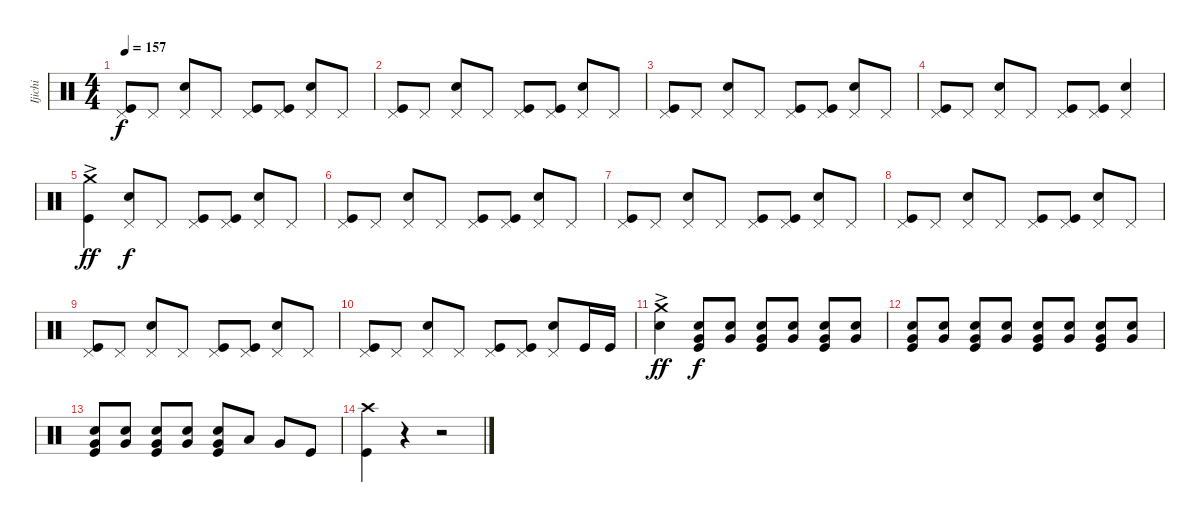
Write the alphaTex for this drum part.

\track ("Ijichi" "Ijichi") {instrument percussion}
\staff {score}
\articulation defaults
\ts (4 4)
\tempo 157
\clef neutral
\ks c
("Pedal Hi-Hat (hit)" "Kick (hit)").8{dy f} "Pedal Hi-Hat (hit)".8 ("Pedal Hi-Hat (hit)" "Snare (hit) 2").8 "Pedal Hi-Hat (hit)".8 ("Pedal Hi-Hat (hit)" "Kick (hit)").8 ("Pedal Hi-Hat (hit)" "Kick (hit)").8 ("Pedal Hi-Hat (hit)" "Snare (hit) 2").8 "Pedal Hi-Hat (hit)".8 |
("Pedal Hi-Hat (hit)" "Kick (hit)").8 "Pedal Hi-Hat (hit)".8 ("Pedal Hi-Hat (hit)" "Snare (hit) 2").8 "Pedal Hi-Hat (hit)".8 ("Pedal Hi-Hat (hit)" "Kick (hit)").8 ("Pedal Hi-Hat (hit)" "Kick (hit)").8 ("Pedal Hi-Hat (hit)" "Snare (hit) 2").8 "Pedal Hi-Hat (hit)".8 |
("Pedal Hi-Hat (hit)" "Kick (hit)").8 "Pedal Hi-Hat (hit)".8 ("Pedal Hi-Hat (hit)" "Snare (hit) 2").8 "Pedal Hi-Hat (hit)".8 ("Pedal Hi-Hat (hit)" "Kick (hit)").8 ("Pedal Hi-Hat (hit)" "Kick (hit)").8 ("Pedal Hi-Hat (hit)" "Snare (hit) 2").8 "Pedal Hi-Hat (hit)".8 |
("Pedal Hi-Hat (hit)" "Kick (hit)").8 "Pedal Hi-Hat (hit)".8 ("Pedal Hi-Hat (hit)" "Snare (hit) 2").8 "Pedal Hi-Hat (hit)".8 ("Pedal Hi-Hat (hit)" "Kick (hit)").8 ("Pedal Hi-Hat (hit)" "Kick (hit)").8 ("Pedal Hi-Hat (hit)" "Snare (hit) 2").4 |
("Crash medium (hit)"{ac} "Kick (hit)").4{dy ff} ("Pedal Hi-Hat (hit)" "Snare (hit) 2").8{dy f} "Pedal Hi-Hat (hit)".8 ("Pedal Hi-Hat (hit)" "Kick (hit)").8 ("Pedal Hi-Hat (hit)" "Kick (hit)").8 ("Pedal Hi-Hat (hit)" "Snare (hit) 2").8 "Pedal Hi-Hat (hit)".8 |
("Pedal Hi-Hat (hit)" "Kick (hit)").8 "Pedal Hi-Hat (hit)".8 ("Pedal Hi-Hat (hit)" "Snare (hit) 2").8 "Pedal Hi-Hat (hit)".8 ("Pedal Hi-Hat (hit)" "Kick (hit)").8 ("Pedal Hi-Hat (hit)" "Kick (hit)").8 ("Pedal Hi-Hat (hit)" "Snare (hit) 2").8 "Pedal Hi-Hat (hit)".8 |
("Pedal Hi-Hat (hit)" "Kick (hit)").8 "Pedal Hi-Hat (hit)".8 ("Pedal Hi-Hat (hit)" "Snare (hit) 2").8 "Pedal Hi-Hat (hit)".8 ("Pedal Hi-Hat (hit)" "Kick (hit)").8 ("Pedal Hi-Hat (hit)" "Kick (hit)").8 ("Pedal Hi-Hat (hit)" "Snare (hit) 2").8 "Pedal Hi-Hat (hit)".8 |
("Pedal Hi-Hat (hit)" "Kick (hit)").8 "Pedal Hi-Hat (hit)".8 ("Pedal Hi-Hat (hit)" "Snare (hit) 2").8 "Pedal Hi-Hat (hit)".8 ("Pedal Hi-Hat (hit)" "Kick (hit)").8 ("Pedal Hi-Hat (hit)" "Kick (hit)").8 ("Pedal Hi-Hat (hit)" "Snare (hit) 2").8 "Pedal Hi-Hat (hit)".8 |
("Pedal Hi-Hat (hit)" "Kick (hit)").8 "Pedal Hi-Hat (hit)".8 ("Pedal Hi-Hat (hit)" "Snare (hit) 2").8 "Pedal Hi-Hat (hit)".8 ("Pedal Hi-Hat (hit)" "Kick (hit)").8 ("Pedal Hi-Hat (hit)" "Kick (hit)").8 ("Pedal Hi-Hat (hit)" "Snare (hit) 2").8 "Pedal Hi-Hat (hit)".8 |
("Pedal Hi-Hat (hit)" "Kick (hit)").8 "Pedal Hi-Hat (hit)".8 ("Pedal Hi-Hat (hit)" "Snare (hit) 2").8 "Pedal Hi-Hat (hit)".8 ("Pedal Hi-Hat (hit)" "Kick (hit)").8 ("Pedal Hi-Hat (hit)" "Kick (hit)").8 ("Pedal Hi-Hat (hit)" "Snare (hit) 2").8 "Kick (hit)".16 "Kick (hit)".16 |
("Crash medium (hit)"{ac} "Snare (hit) 2").4{dy ff} ("Snare (hit) 2" "Very Low Tom (hit)" "Kick (hit)").8{dy f volume 6} ("Snare (hit) 2" "Very Low Tom (hit)").8 ("Snare (hit) 2" "Very Low Tom (hit)" "Kick (hit)").8{volume 7} ("Snare (hit) 2" "Very Low Tom (hit)").8 ("Snare (hit) 2" "Very Low Tom (hit)" "Kick (hit)").8{volume 8} ("Snare (hit) 2" "Very Low Tom (hit)").8 |
("Snare (hit) 2" "Very Low Tom (hit)" "Kick (hit)").8{volume 9} ("Snare (hit) 2" "Very Low Tom (hit)").8 ("Snare (hit) 2" "Very Low Tom (hit)" "Kick (hit)").8{volume 10} ("Snare (hit) 2" "Very Low Tom (hit)").8 ("Snare (hit) 2" "Very Low Tom (hit)" "Kick (hit)").8{volume 11} ("Snare (hit) 2" "Very Low Tom (hit)").8 ("Snare (hit) 2" "Very Low Tom (hit)" "Kick (hit)").8{volume 12} ("Snare (hit) 2" "Very Low Tom (hit)").8 |
("Snare (hit) 2" "Very Low Tom (hit)" "Kick (hit)").8{volume 13} ("Snare (hit) 2" "Very Low Tom (hit)").8 ("Snare (hit) 2" "Very Low Tom (hit)" "Kick (hit)").8 ("Snare (hit) 2" "Very Low Tom (hit)").8 ("Snare (hit) 2" "Very Low Tom (hit)" "Kick (hit)").8 "Low Tom (hit)".8 "Very Low Tom (hit)".8 "Kick (hit)".8 |
("Crash high (hit)" "Kick (hit)").4 r.4 r.2
